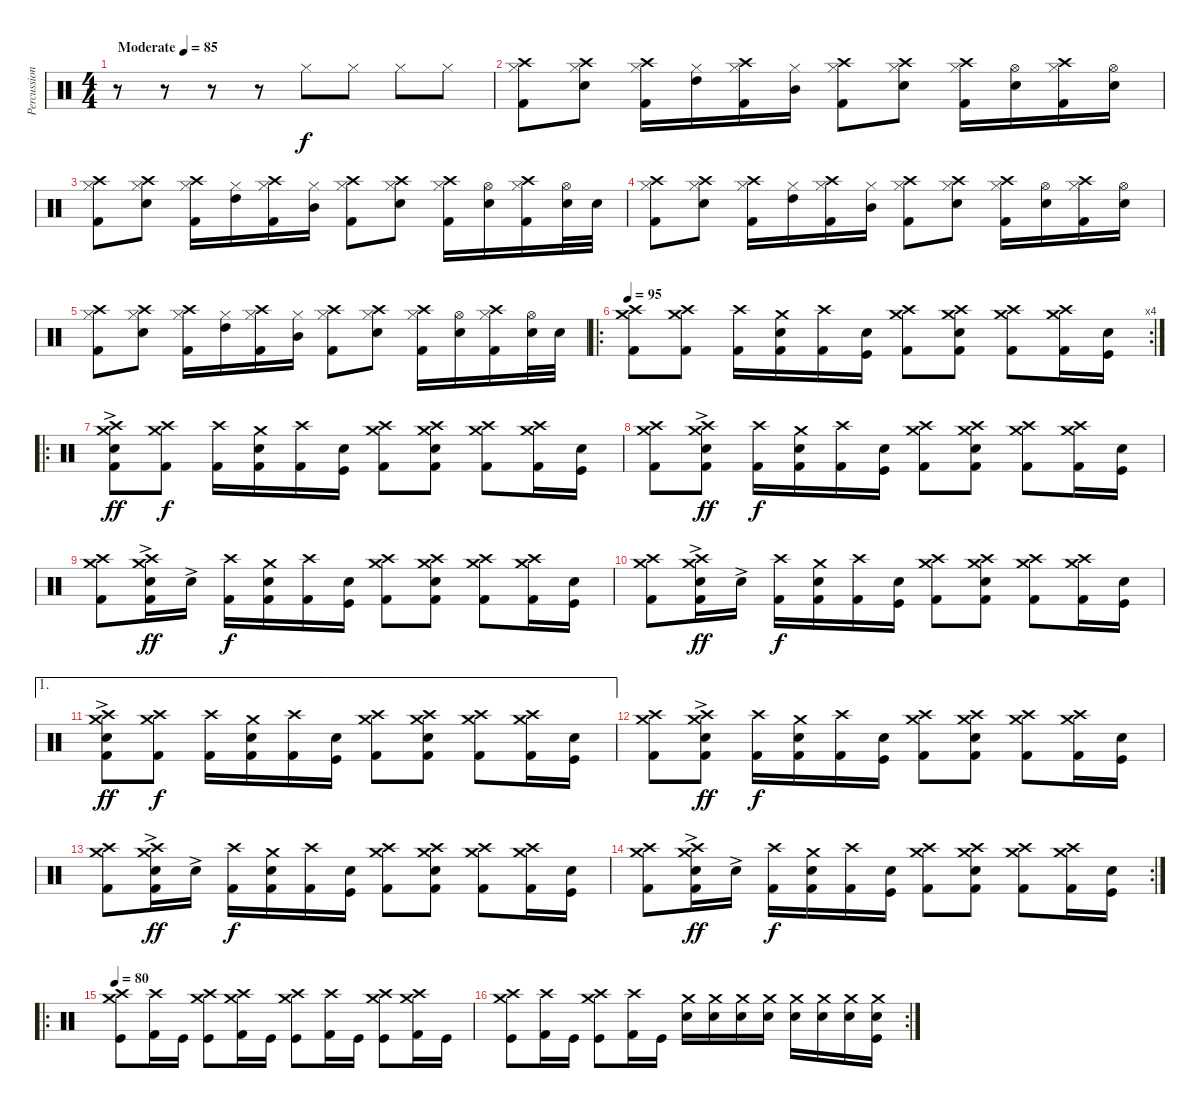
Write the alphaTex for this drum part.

\track ("Percussions" "Percussion") {instrument percussion}
\staff {score}
\articulation defaults
\ts (4 4)
\tempo (85 "Moderate")
\clef neutral
\ks c
r.8{dy f} r.8 r.8 r.8 "Hi-Hat (closed)".8 "Hi-Hat (closed)".8 "Hi-Hat (closed)".8 "Hi-Hat (closed)".8 |
("Hi-Hat (closed)" "Kick (hit) 2" "Crash high (hit)").8 ("Hi-Hat (closed)" "Electric Snare (hit)" "Crash high (hit)").8 ("Hi-Hat (closed)" "Kick (hit) 2" "Crash high (hit)").16 ("Hi-Hat (closed)" "High Tom (hit)").16 ("Hi-Hat (closed)" "Kick (hit) 2" "Crash high (hit)").16 ("Hi-Hat (closed)" "Mid Tom (hit)").16 ("Hi-Hat (closed)" "Kick (hit) 2" "Crash high (hit)").8 ("Hi-Hat (closed)" "Electric Snare (hit)" "Crash high (hit)").8 ("Hi-Hat (closed)" "Kick (hit) 2" "Crash high (hit)").16 ("Hi-Hat (open)" "Electric Snare (hit)").16 ("Hi-Hat (closed)" "Kick (hit) 2" "Crash high (hit)").16 ("Hi-Hat (open)" "Electric Snare (hit)").16 |
("Hi-Hat (closed)" "Kick (hit) 2" "Crash high (hit)").8 ("Hi-Hat (closed)" "Electric Snare (hit)" "Crash high (hit)").8 ("Hi-Hat (closed)" "Kick (hit) 2" "Crash high (hit)").16 ("Hi-Hat (closed)" "High Tom (hit)").16 ("Hi-Hat (closed)" "Kick (hit) 2" "Crash high (hit)").16 ("Hi-Hat (closed)" "Mid Tom (hit)").16 ("Hi-Hat (closed)" "Kick (hit) 2" "Crash high (hit)").8 ("Hi-Hat (closed)" "Electric Snare (hit)" "Crash high (hit)").8 ("Hi-Hat (closed)" "Kick (hit) 2" "Crash high (hit)").16 ("Hi-Hat (open)" "Electric Snare (hit)").16 ("Hi-Hat (closed)" "Kick (hit) 2" "Crash high (hit)").16 ("Hi-Hat (open)" "Electric Snare (hit)").32 "Electric Snare (hit)".32 |
("Hi-Hat (closed)" "Kick (hit) 2" "Crash high (hit)").8 ("Hi-Hat (closed)" "Electric Snare (hit)" "Crash high (hit)").8 ("Hi-Hat (closed)" "Kick (hit) 2" "Crash high (hit)").16 ("Hi-Hat (closed)" "High Tom (hit)").16 ("Hi-Hat (closed)" "Kick (hit) 2" "Crash high (hit)").16 ("Hi-Hat (closed)" "Mid Tom (hit)").16 ("Hi-Hat (closed)" "Kick (hit) 2" "Crash high (hit)").8 ("Hi-Hat (closed)" "Electric Snare (hit)" "Crash high (hit)").8 ("Hi-Hat (closed)" "Kick (hit) 2" "Crash high (hit)").16 ("Hi-Hat (open)" "Electric Snare (hit)").16 ("Hi-Hat (closed)" "Kick (hit) 2" "Crash high (hit)").16 ("Hi-Hat (open)" "Electric Snare (hit)").16 |
("Hi-Hat (closed)" "Kick (hit) 2" "Crash high (hit)").8 ("Hi-Hat (closed)" "Electric Snare (hit)" "Crash high (hit)").8 ("Hi-Hat (closed)" "Kick (hit) 2" "Crash high (hit)").16 ("Hi-Hat (closed)" "High Tom (hit)").16 ("Hi-Hat (closed)" "Kick (hit) 2" "Crash high (hit)").16 ("Hi-Hat (closed)" "Mid Tom (hit)").16 ("Hi-Hat (closed)" "Kick (hit) 2" "Crash high (hit)").8 ("Hi-Hat (closed)" "Electric Snare (hit)" "Crash high (hit)").8 ("Hi-Hat (closed)" "Kick (hit) 2" "Crash high (hit)").16 ("Hi-Hat (open)" "Electric Snare (hit)").16 ("Hi-Hat (closed)" "Kick (hit) 2" "Crash high (hit)").16 ("Hi-Hat (open)" "Electric Snare (hit)").32 "Electric Snare (hit)".32 |
\ro
\rc 4
\tempo 95
("Crash high (hit)" "Crash medium (hit)" "Kick (hit) 2").8 ("Crash high (hit)" "Crash medium (hit)" "Kick (hit) 2").8 ("Crash high (hit)" "Kick (hit) 2").16 ("Crash medium (hit)" "Snare (hit) 2" "Kick (hit) 2").16 ("Crash high (hit)" "Kick (hit) 2").16 ("Snare (hit) 2" "Kick (hit)").16 ("Crash high (hit)" "Crash medium (hit)" "Kick (hit) 2").8 ("Crash high (hit)" "Crash medium (hit)" "Snare (hit) 2" "Kick (hit) 2").8 ("Crash high (hit)" "Crash medium (hit)" "Kick (hit) 2").8 ("Crash high (hit)" "Crash medium (hit)" "Kick (hit) 2").16 ("Snare (hit) 2" "Kick (hit)").16 |
\ro
("Crash high (hit)" "Crash medium (hit)" "Electric Snare (hit)"{ac} "Kick (hit) 2").8{dy ff} ("Crash high (hit)" "Crash medium (hit)" "Kick (hit) 2").8{dy f} ("Crash high (hit)" "Kick (hit) 2").16 ("Crash medium (hit)" "Snare (hit) 2" "Kick (hit) 2").16 ("Crash high (hit)" "Kick (hit) 2").16 ("Snare (hit) 2" "Kick (hit)").16 ("Crash high (hit)" "Crash medium (hit)" "Kick (hit) 2").8 ("Crash high (hit)" "Crash medium (hit)" "Snare (hit) 2" "Kick (hit) 2").8 ("Crash high (hit)" "Crash medium (hit)" "Kick (hit) 2").8 ("Crash high (hit)" "Crash medium (hit)" "Kick (hit) 2").16 ("Snare (hit) 2" "Kick (hit)").16 |
("Crash high (hit)" "Crash medium (hit)" "Kick (hit) 2").8 ("Crash high (hit)" "Crash medium (hit)" "Electric Snare (hit)"{ac} "Kick (hit) 2").8{dy ff} ("Crash high (hit)" "Kick (hit) 2").16{dy f} ("Crash medium (hit)" "Snare (hit) 2" "Kick (hit) 2").16 ("Crash high (hit)" "Kick (hit) 2").16 ("Snare (hit) 2" "Kick (hit)").16 ("Crash high (hit)" "Crash medium (hit)" "Kick (hit) 2").8 ("Crash high (hit)" "Crash medium (hit)" "Snare (hit) 2" "Kick (hit) 2").8 ("Crash high (hit)" "Crash medium (hit)" "Kick (hit) 2").8 ("Crash high (hit)" "Crash medium (hit)" "Kick (hit) 2").16 ("Snare (hit) 2" "Kick (hit)").16 |
("Crash high (hit)" "Crash medium (hit)" "Kick (hit) 2").8 ("Crash high (hit)" "Crash medium (hit)" "Electric Snare (hit)"{ac} "Kick (hit) 2").16{dy ff} "Electric Snare (hit)"{ac}.16 ("Crash high (hit)" "Kick (hit) 2").16{dy f} ("Crash medium (hit)" "Snare (hit) 2" "Kick (hit) 2").16 ("Crash high (hit)" "Kick (hit) 2").16 ("Snare (hit) 2" "Kick (hit)").16 ("Crash high (hit)" "Crash medium (hit)" "Kick (hit) 2").8 ("Crash high (hit)" "Crash medium (hit)" "Snare (hit) 2" "Kick (hit) 2").8 ("Crash high (hit)" "Crash medium (hit)" "Kick (hit) 2").8 ("Crash high (hit)" "Crash medium (hit)" "Kick (hit) 2").16 ("Snare (hit) 2" "Kick (hit)").16 |
("Crash high (hit)" "Crash medium (hit)" "Kick (hit) 2").8 ("Crash high (hit)" "Crash medium (hit)" "Electric Snare (hit)"{ac} "Kick (hit) 2").16{dy ff} "Electric Snare (hit)"{ac}.16 ("Crash high (hit)" "Kick (hit) 2").16{dy f} ("Crash medium (hit)" "Snare (hit) 2" "Kick (hit) 2").16 ("Crash high (hit)" "Kick (hit) 2").16 ("Snare (hit) 2" "Kick (hit)").16 ("Crash high (hit)" "Crash medium (hit)" "Kick (hit) 2").8 ("Crash high (hit)" "Crash medium (hit)" "Snare (hit) 2" "Kick (hit) 2").8 ("Crash high (hit)" "Crash medium (hit)" "Kick (hit) 2").8 ("Crash high (hit)" "Crash medium (hit)" "Kick (hit) 2").16 ("Snare (hit) 2" "Kick (hit)").16 |
\ae 1
("Crash high (hit)" "Crash medium (hit)" "Electric Snare (hit)"{ac} "Kick (hit) 2").8{dy ff} ("Crash high (hit)" "Crash medium (hit)" "Kick (hit) 2").8{dy f} ("Crash high (hit)" "Kick (hit) 2").16 ("Crash medium (hit)" "Snare (hit) 2" "Kick (hit) 2").16 ("Crash high (hit)" "Kick (hit) 2").16 ("Snare (hit) 2" "Kick (hit)").16 ("Crash high (hit)" "Crash medium (hit)" "Kick (hit) 2").8 ("Crash high (hit)" "Crash medium (hit)" "Snare (hit) 2" "Kick (hit) 2").8 ("Crash high (hit)" "Crash medium (hit)" "Kick (hit) 2").8 ("Crash high (hit)" "Crash medium (hit)" "Kick (hit) 2").16 ("Snare (hit) 2" "Kick (hit)").16 |
("Crash high (hit)" "Crash medium (hit)" "Kick (hit) 2").8 ("Crash high (hit)" "Crash medium (hit)" "Electric Snare (hit)"{ac} "Kick (hit) 2").8{dy ff} ("Crash high (hit)" "Kick (hit) 2").16{dy f} ("Crash medium (hit)" "Snare (hit) 2" "Kick (hit) 2").16 ("Crash high (hit)" "Kick (hit) 2").16 ("Snare (hit) 2" "Kick (hit)").16 ("Crash high (hit)" "Crash medium (hit)" "Kick (hit) 2").8 ("Crash high (hit)" "Crash medium (hit)" "Snare (hit) 2" "Kick (hit) 2").8 ("Crash high (hit)" "Crash medium (hit)" "Kick (hit) 2").8 ("Crash high (hit)" "Crash medium (hit)" "Kick (hit) 2").16 ("Snare (hit) 2" "Kick (hit)").16 |
("Crash high (hit)" "Crash medium (hit)" "Kick (hit) 2").8 ("Crash high (hit)" "Crash medium (hit)" "Electric Snare (hit)"{ac} "Kick (hit) 2").16{dy ff} "Electric Snare (hit)"{ac}.16 ("Crash high (hit)" "Kick (hit) 2").16{dy f} ("Crash medium (hit)" "Snare (hit) 2" "Kick (hit) 2").16 ("Crash high (hit)" "Kick (hit) 2").16 ("Snare (hit) 2" "Kick (hit)").16 ("Crash high (hit)" "Crash medium (hit)" "Kick (hit) 2").8 ("Crash high (hit)" "Crash medium (hit)" "Snare (hit) 2" "Kick (hit) 2").8 ("Crash high (hit)" "Crash medium (hit)" "Kick (hit) 2").8 ("Crash high (hit)" "Crash medium (hit)" "Kick (hit) 2").16 ("Snare (hit) 2" "Kick (hit)").16 |
\rc 2
("Crash high (hit)" "Crash medium (hit)" "Kick (hit) 2").8 ("Crash high (hit)" "Crash medium (hit)" "Electric Snare (hit)"{ac} "Kick (hit) 2").16{dy ff} "Electric Snare (hit)"{ac}.16 ("Crash high (hit)" "Kick (hit) 2").16{dy f} ("Crash medium (hit)" "Snare (hit) 2" "Kick (hit) 2").16 ("Crash high (hit)" "Kick (hit) 2").16 ("Snare (hit) 2" "Kick (hit)").16 ("Crash high (hit)" "Crash medium (hit)" "Kick (hit) 2").8 ("Crash high (hit)" "Crash medium (hit)" "Snare (hit) 2" "Kick (hit) 2").8 ("Crash high (hit)" "Crash medium (hit)" "Kick (hit) 2").8 ("Crash high (hit)" "Crash medium (hit)" "Kick (hit) 2").16 ("Snare (hit) 2" "Kick (hit)").16 |
\ro
\tempo 80
("Crash high (hit)" "Crash medium (hit)" "Kick (hit)").8 ("Crash high (hit)" "Kick (hit) 2").16 "Kick (hit)".16 ("Crash high (hit)" "Crash medium (hit)" "Kick (hit)").8 ("Crash high (hit)" "Crash medium (hit)" "Kick (hit) 2").16 "Kick (hit)".16 ("Crash high (hit)" "Crash medium (hit)" "Kick (hit)").8 ("Crash high (hit)" "Kick (hit) 2").16 "Kick (hit)".16 ("Crash high (hit)" "Crash medium (hit)" "Kick (hit)").8 ("Crash high (hit)" "Crash medium (hit)" "Kick (hit) 2").16 "Kick (hit)".16 |
\rc 2
("Crash high (hit)" "Crash medium (hit)" "Kick (hit)").8 ("Crash high (hit)" "Kick (hit) 2").16 "Kick (hit)".16 ("Crash high (hit)" "Crash medium (hit)" "Kick (hit)").8 ("Crash high (hit)" "Kick (hit) 2").16 "Kick (hit)".16 ("Crash medium (hit)" "Electric Snare (hit)").16 ("Crash medium (hit)" "Electric Snare (hit)").16 ("Crash medium (hit)" "Electric Snare (hit)").16 ("Crash medium (hit)" "Electric Snare (hit)").16 ("Crash medium (hit)" "Electric Snare (hit)").16 ("Crash medium (hit)" "Electric Snare (hit)").16 ("Crash medium (hit)" "Electric Snare (hit)").16 ("Crash medium (hit)" "Electric Snare (hit)" "Kick (hit)").16
